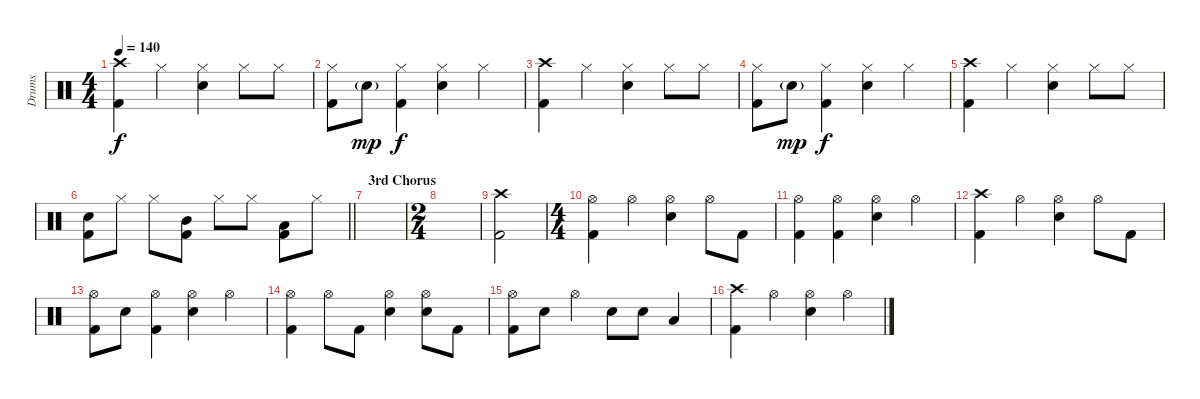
\track ("Drums" "Drums") {instrument percussion}
\staff {score}
\articulation defaults
\ts (4 4)
\tempo 140
\clef neutral
\ks c
("Crash high (hit)" "Kick (hit) 2").4{dy f} "Hi-Hat (closed)".4 ("Snare (hit) 2" "Hi-Hat (closed)").4 "Hi-Hat (closed)".8 "Hi-Hat (closed)".8 |
("Hi-Hat (closed)" "Kick (hit) 2").8 "Snare (hit) 2"{g}.8{dy mp} ("Kick (hit) 2" "Hi-Hat (closed)").4{dy f} ("Snare (hit) 2" "Hi-Hat (closed)").4 "Hi-Hat (closed)".4 |
("Crash high (hit)" "Kick (hit) 2").4 "Hi-Hat (closed)".4 ("Snare (hit) 2" "Hi-Hat (closed)").4 "Hi-Hat (closed)".8 "Hi-Hat (closed)".8 |
("Hi-Hat (closed)" "Kick (hit) 2").8 "Snare (hit) 2"{g}.8{dy mp} ("Kick (hit) 2" "Hi-Hat (closed)").4{dy f} ("Snare (hit) 2" "Hi-Hat (closed)").4 "Hi-Hat (closed)".4 |
("Crash high (hit)" "Kick (hit) 2").4 "Hi-Hat (closed)".4 ("Snare (hit) 2" "Hi-Hat (closed)").4 "Hi-Hat (closed)".8 "Hi-Hat (closed)".8 |
\barLineRight lightlight
("Snare (hit) 2" "Kick (hit) 2").8 "Hi-Hat (closed)".8 "Hi-Hat (closed)".8 ("Mid Tom (hit)" "Kick (hit) 2").8 "Hi-Hat (closed)".8 "Hi-Hat (closed)".8 ("Low Tom (hit)" "Kick (hit) 2").8 "Hi-Hat (closed)".8 |
\section ("" "3rd Chorus")
|
\ts (2 4)
|
("Kick (hit) 2" "Crash high (hit)").2{volume 16} |
\ts (4 4)
("Hi-Hat (open)" "Kick (hit) 2").4 "Hi-Hat (open)".4 ("Snare (hit) 2" "Hi-Hat (open)").4 "Hi-Hat (open)".8 "Kick (hit) 2".8 |
("Kick (hit) 2" "Hi-Hat (open)").4 ("Kick (hit) 2" "Hi-Hat (open)").4 ("Snare (hit) 2" "Hi-Hat (open)").4 "Hi-Hat (open)".4 |
("Crash high (hit)" "Kick (hit) 2").4 "Hi-Hat (open)".4 ("Snare (hit) 2" "Hi-Hat (open)").4 "Hi-Hat (open)".8 "Kick (hit) 2".8 |
("Kick (hit) 2" "Hi-Hat (open)").8 "Snare (hit) 2".8 ("Kick (hit) 2" "Hi-Hat (open)").4 ("Snare (hit) 2" "Hi-Hat (open)").4 "Hi-Hat (open)".4 |
("Kick (hit) 2" "Hi-Hat (open)").4 "Hi-Hat (open)".8 "Kick (hit) 2".8 ("Snare (hit) 2" "Hi-Hat (open)").4 ("Snare (hit) 2" "Hi-Hat (open)").8 "Kick (hit) 2".8 |
("Kick (hit) 2" "Hi-Hat (open)").8 "Snare (hit) 2".8 "Hi-Hat (open)".4 "Snare (hit) 2".8 "Snare (hit) 2".8 "Low Tom (hit)".4 |
("Crash high (hit)" "Kick (hit) 2").4 "Hi-Hat (open)".4 ("Snare (hit) 2" "Hi-Hat (open)").4 "Hi-Hat (open)".4
